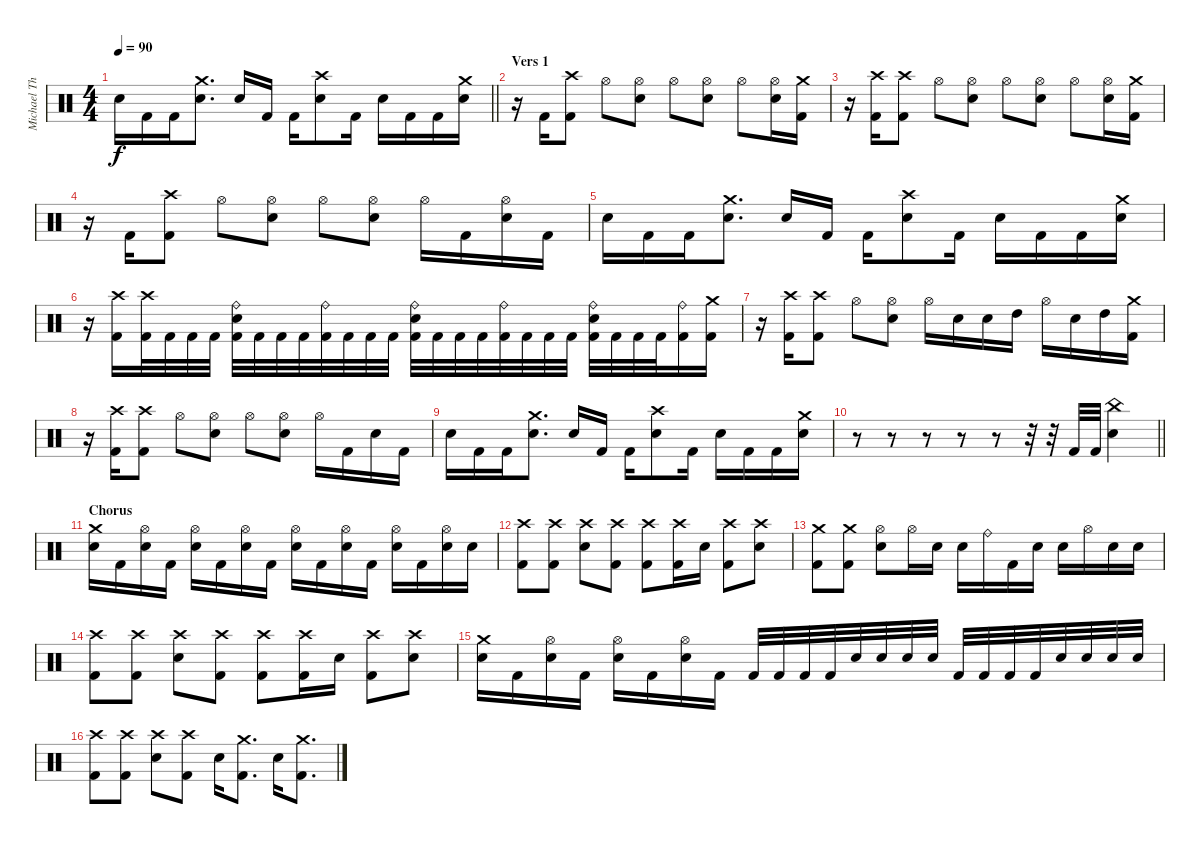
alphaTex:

\track ("Michael Thomas" "Michael Th") {instrument percussion}
\staff {score}
\articulation defaults
\ts (4 4)
\tempo 90
\clef neutral
\barLineRight lightlight
\ks c "Electric Snare (hit)".16{dy f} "Kick (hit) 2".16 "Kick (hit) 2".16
("Crash medium (hit)" "Electric Snare (hit)").8{d} "Electric Snare (hit)".16 "Kick (hit) 2".16 "Kick (hit) 2".16 ("Crash high (hit)" "Electric Snare (hit)").8 "Kick (hit) 2".16 "Electric Snare (hit)".16 "Kick (hit) 2".16 "Kick (hit) 2".16 ("Crash medium (hit)" "Electric Snare (hit)").16 |
\section ("" "Vers 1")
r.16 "Kick (hit) 2".16 ("Crash high (hit)" "Kick (hit) 2").8 "Hi-Hat (open)".8 ("Hi-Hat (open)" "Electric Snare (hit)").8 "Hi-Hat (open)".8 ("Hi-Hat (open)" "Electric Snare (hit)").8 "Hi-Hat (open)".8 ("Hi-Hat (open)" "Electric Snare (hit)").16 ("Crash medium (hit)" "Kick (hit) 2").16 |
r.16 ("Crash high (hit)" "Kick (hit) 2").16 ("Crash high (hit)" "Kick (hit) 2").8 "Hi-Hat (open)".8 ("Hi-Hat (open)" "Electric Snare (hit)").8 "Hi-Hat (open)".8 ("Hi-Hat (open)" "Electric Snare (hit)").8 "Hi-Hat (open)".8 ("Hi-Hat (open)" "Electric Snare (hit)").16 ("Crash medium (hit)" "Kick (hit) 2").16 |
r.16 "Kick (hit) 2".16 ("Crash high (hit)" "Kick (hit) 2").8 "Hi-Hat (open)".8 ("Hi-Hat (open)" "Electric Snare (hit)").8 "Hi-Hat (open)".8 ("Hi-Hat (open)" "Electric Snare (hit)").8 "Hi-Hat (open)".16 "Kick (hit) 2".16 ("Hi-Hat (open)" "Electric Snare (hit)").16 "Kick (hit) 2".16 |
"Electric Snare (hit)".16 "Kick (hit) 2".16 "Kick (hit) 2".16 ("Crash medium (hit)" "Electric Snare (hit)").8{d} "Electric Snare (hit)".16 "Kick (hit) 2".16 "Kick (hit) 2".16 ("Crash high (hit)" "Electric Snare (hit)").8 "Kick (hit) 2".16 "Electric Snare (hit)".16 "Kick (hit) 2".16 "Kick (hit) 2".16 ("Crash medium (hit)" "Electric Snare (hit)").16 |
r.16 ("Crash high (hit)" "Kick (hit) 2").16 ("Crash high (hit)" "Kick (hit) 2").32 "Kick (hit) 2".32 "Kick (hit) 2".32 "Kick (hit) 2".32 ("Ride (bell)" "Electric Snare (hit)" "Kick (hit) 2").32 "Kick (hit) 2".32 "Kick (hit) 2".32 "Kick (hit) 2".32 ("Ride (bell)" "Kick (hit) 2").32 "Kick (hit) 2".32 "Kick (hit) 2".32 "Kick (hit) 2".32 ("Ride (bell)" "Electric Snare (hit)" "Kick (hit) 2").32 "Kick (hit) 2".32 "Kick (hit) 2".32 "Kick (hit) 2".32 ("Ride (bell)" "Kick (hit) 2").32 "Kick (hit) 2".32 "Kick (hit) 2".32 "Kick (hit) 2".32 ("Ride (bell)" "Electric Snare (hit)" "Kick (hit) 2").32 "Kick (hit) 2".32 "Kick (hit) 2".32 "Kick (hit) 2".32 ("Ride (bell)" "Kick (hit) 2").16 ("Crash medium (hit)" "Kick (hit) 2").16 |
r.16 ("Crash high (hit)" "Kick (hit) 2").16 ("Crash high (hit)" "Kick (hit) 2").8 "Hi-Hat (open)".8 ("Hi-Hat (open)" "Electric Snare (hit)").8 "Hi-Hat (open)".16 "Electric Snare (hit)".16 "Electric Snare (hit)".16 "High Tom (hit)".16 "Hi-Hat (open)".16 "Electric Snare (hit)".16 "High Tom (hit)".16 ("Crash medium (hit)" "Kick (hit) 2").16 |
r.16 ("Crash high (hit)" "Kick (hit) 2").16 ("Crash high (hit)" "Kick (hit) 2").8 "Hi-Hat (open)".8 ("Hi-Hat (open)" "Electric Snare (hit)").8 "Hi-Hat (open)".8 ("Hi-Hat (open)" "Electric Snare (hit)").8 "Hi-Hat (open)".16 "Kick (hit) 2".16 "Electric Snare (hit)".16 "Kick (hit) 2".16 |
"Electric Snare (hit)".16 "Kick (hit) 2".16 "Kick (hit) 2".16 ("Crash medium (hit)" "Electric Snare (hit)").8{d} "Electric Snare (hit)".16 "Kick (hit) 2".16 "Kick (hit) 2".16 ("Crash high (hit)" "Electric Snare (hit)").8 "Kick (hit) 2".16 "Electric Snare (hit)".16 "Kick (hit) 2".16 "Kick (hit) 2".16 ("Crash medium (hit)" "Electric Snare (hit)").16 |
\barLineRight lightlight
r.8 r.8 r.8 r.8 r.8 r.32 r.32 "Kick (hit) 2".32 "Kick (hit) 2".32 ("China (hit)" "Electric Snare (hit)").4 |
\section ("" "Chorus")
("Crash medium (hit)" "Electric Snare (hit)").16 "Kick (hit) 2".16 ("Hi-Hat (open)" "Electric Snare (hit)").16 "Kick (hit) 2".16 ("Hi-Hat (open)" "Electric Snare (hit)").16 "Kick (hit) 2".16 ("Hi-Hat (open)" "Electric Snare (hit)").16 "Kick (hit) 2".16 ("Hi-Hat (open)" "Electric Snare (hit)").16 "Kick (hit) 2".16 ("Hi-Hat (open)" "Electric Snare (hit)").16 "Kick (hit) 2".16 ("Hi-Hat (open)" "Electric Snare (hit)").16 "Kick (hit) 2".16 ("Hi-Hat (open)" "Electric Snare (hit)").16 "Electric Snare (hit)".16 |
("Crash high (hit)" "Kick (hit) 2").8 ("Crash high (hit)" "Kick (hit) 2").8 ("Crash high (hit)" "Electric Snare (hit)").8 ("Crash high (hit)" "Kick (hit) 2").8 ("Crash high (hit)" "Kick (hit) 2").8 ("Crash high (hit)" "Kick (hit) 2").16 "Electric Snare (hit)".16 ("Crash high (hit)" "Kick (hit) 2").8 ("Crash high (hit)" "Electric Snare (hit)").8 |
("Crash medium (hit)" "Kick (hit) 2").8 ("Crash medium (hit)" "Kick (hit) 2").8 ("Hi-Hat (open)" "Electric Snare (hit)").8 "Hi-Hat (open)".16 "Electric Snare (hit)".16 "Electric Snare (hit)".16 "Ride (bell)".16 "Kick (hit) 2".16 "Electric Snare (hit)".16 "Electric Snare (hit)".16 "Hi-Hat (open)".16 "Electric Snare (hit)".16 "Electric Snare (hit)".16 |
("Crash high (hit)" "Kick (hit) 2").8 ("Crash high (hit)" "Kick (hit) 2").8 ("Crash high (hit)" "Electric Snare (hit)").8 ("Crash high (hit)" "Kick (hit) 2").8 ("Crash high (hit)" "Kick (hit) 2").8 ("Crash high (hit)" "Kick (hit) 2").16 "Electric Snare (hit)".16 ("Crash high (hit)" "Kick (hit) 2").8 ("Crash high (hit)" "Electric Snare (hit)").8 |
("Crash medium (hit)" "Electric Snare (hit)").16 "Kick (hit) 2".16 ("Hi-Hat (open)" "Electric Snare (hit)").16 "Kick (hit) 2".16 ("Hi-Hat (open)" "Electric Snare (hit)").16 "Kick (hit) 2".16 ("Hi-Hat (open)" "Electric Snare (hit)").16 "Kick (hit) 2".16 "Kick (hit) 2".32 "Kick (hit) 2".32 "Kick (hit) 2".32 "Kick (hit) 2".32 "Electric Snare (hit)".32 "Electric Snare (hit)".32 "Electric Snare (hit)".32 "Electric Snare (hit)".32 "Kick (hit) 2".32 "Kick (hit) 2".32 "Kick (hit) 2".32 "Kick (hit) 2".32 "Electric Snare (hit)".32 "Electric Snare (hit)".32 "Electric Snare (hit)".32 "Electric Snare (hit)".32 |
("Crash high (hit)" "Kick (hit) 2").8 ("Crash high (hit)" "Kick (hit) 2").8 ("Crash high (hit)" "Electric Snare (hit)").8 ("Crash high (hit)" "Kick (hit) 2").8 "Electric Snare (hit)".16 ("Crash medium (hit)" "Kick (hit) 2").8{d} "Electric Snare (hit)".16 ("Crash medium (hit)" "Kick (hit) 2").8{d}
